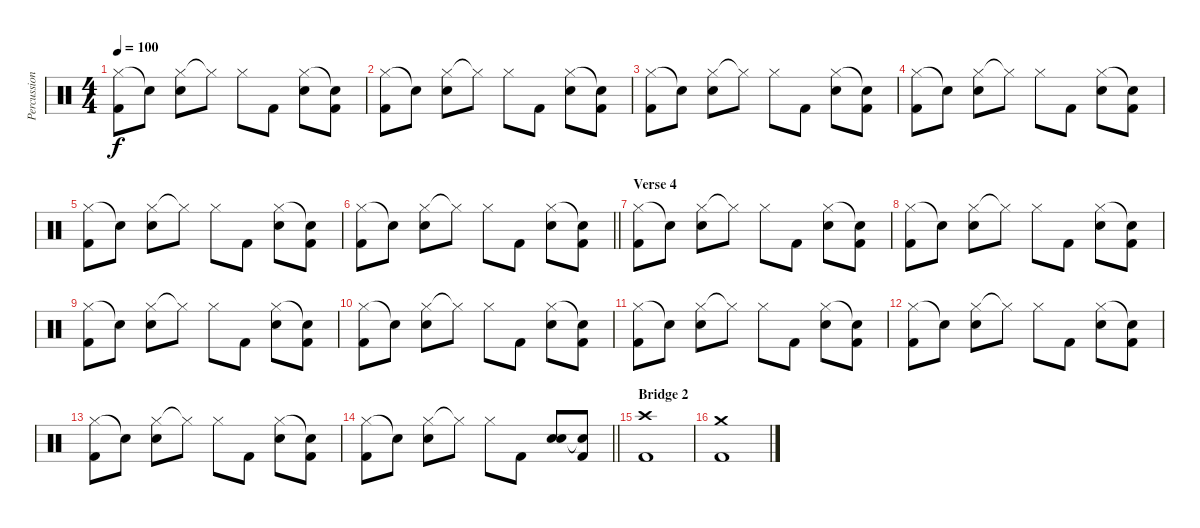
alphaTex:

\track ("Percussion(Tomi)" "Percussion") {instrument percussion}
\staff {score}
\articulation defaults
\ts (4 4)
\tempo 100
\clef neutral
\ks c
("Hi-Hat (closed)" "Kick (hit) 2").8{dy f} "Snare (hit)"{t}.8 ("Hi-Hat (closed)" "Electric Snare (hit)").8 "Hi-Hat (closed)"{t}.8 "Hi-Hat (closed)".8 "Kick (hit) 2".8 ("Hi-Hat (closed)" "Electric Snare (hit)").8 ("Snare (hit)"{t} "Kick (hit) 2").8 |
("Hi-Hat (closed)" "Kick (hit) 2").8 "Snare (hit)"{t}.8 ("Hi-Hat (closed)" "Electric Snare (hit)").8 "Hi-Hat (closed)"{t}.8 "Hi-Hat (closed)".8 "Kick (hit) 2".8 ("Hi-Hat (closed)" "Electric Snare (hit)").8 ("Snare (hit)"{t} "Kick (hit) 2").8 |
("Hi-Hat (closed)" "Kick (hit) 2").8 "Snare (hit)"{t}.8 ("Hi-Hat (closed)" "Electric Snare (hit)").8 "Hi-Hat (closed)"{t}.8 "Hi-Hat (closed)".8 "Kick (hit) 2".8 ("Hi-Hat (closed)" "Electric Snare (hit)").8 ("Snare (hit)"{t} "Kick (hit) 2").8 |
("Hi-Hat (closed)" "Kick (hit) 2").8 "Snare (hit)"{t}.8 ("Hi-Hat (closed)" "Electric Snare (hit)").8 "Hi-Hat (closed)"{t}.8 "Hi-Hat (closed)".8 "Kick (hit) 2".8 ("Hi-Hat (closed)" "Electric Snare (hit)").8 ("Snare (hit)"{t} "Kick (hit) 2").8 |
("Hi-Hat (closed)" "Kick (hit) 2").8 "Snare (hit)"{t}.8 ("Hi-Hat (closed)" "Electric Snare (hit)").8 "Hi-Hat (closed)"{t}.8 "Hi-Hat (closed)".8 "Kick (hit) 2".8 ("Hi-Hat (closed)" "Electric Snare (hit)").8 ("Snare (hit)"{t} "Kick (hit) 2").8 |
\barLineRight lightlight
("Hi-Hat (closed)" "Kick (hit) 2").8 "Snare (hit)"{t}.8 ("Hi-Hat (closed)" "Electric Snare (hit)").8 "Hi-Hat (closed)"{t}.8 "Hi-Hat (closed)".8 "Kick (hit) 2".8 ("Hi-Hat (closed)" "Electric Snare (hit)").8 ("Snare (hit)"{t} "Kick (hit) 2").8 |
\section ("" "Verse 4")
("Hi-Hat (closed)" "Kick (hit) 2").8 "Snare (hit)"{t}.8 ("Hi-Hat (closed)" "Electric Snare (hit)").8 "Hi-Hat (closed)"{t}.8 "Hi-Hat (closed)".8 "Kick (hit) 2".8 ("Hi-Hat (closed)" "Electric Snare (hit)").8 ("Snare (hit)"{t} "Kick (hit) 2").8 |
("Hi-Hat (closed)" "Kick (hit) 2").8 "Snare (hit)"{t}.8 ("Hi-Hat (closed)" "Electric Snare (hit)").8 "Hi-Hat (closed)"{t}.8 "Hi-Hat (closed)".8 "Kick (hit) 2".8 ("Hi-Hat (closed)" "Electric Snare (hit)").8 ("Snare (hit)"{t} "Kick (hit) 2").8 |
("Hi-Hat (closed)" "Kick (hit) 2").8 "Snare (hit)"{t}.8 ("Hi-Hat (closed)" "Electric Snare (hit)").8 "Hi-Hat (closed)"{t}.8 "Hi-Hat (closed)".8 "Kick (hit) 2".8 ("Hi-Hat (closed)" "Electric Snare (hit)").8 ("Snare (hit)"{t} "Kick (hit) 2").8 |
("Hi-Hat (closed)" "Kick (hit) 2").8 "Snare (hit)"{t}.8 ("Hi-Hat (closed)" "Electric Snare (hit)").8 "Hi-Hat (closed)"{t}.8 "Hi-Hat (closed)".8 "Kick (hit) 2".8 ("Hi-Hat (closed)" "Electric Snare (hit)").8 ("Snare (hit)"{t} "Kick (hit) 2").8 |
("Hi-Hat (closed)" "Kick (hit) 2").8 "Snare (hit)"{t}.8 ("Hi-Hat (closed)" "Electric Snare (hit)").8 "Hi-Hat (closed)"{t}.8 "Hi-Hat (closed)".8 "Kick (hit) 2".8 ("Hi-Hat (closed)" "Electric Snare (hit)").8 ("Snare (hit)"{t} "Kick (hit) 2").8 |
("Hi-Hat (closed)" "Kick (hit) 2").8 "Snare (hit)"{t}.8 ("Hi-Hat (closed)" "Electric Snare (hit)").8 "Hi-Hat (closed)"{t}.8 "Hi-Hat (closed)".8 "Kick (hit) 2".8 ("Hi-Hat (closed)" "Electric Snare (hit)").8 ("Snare (hit)"{t} "Kick (hit) 2").8 |
("Hi-Hat (closed)" "Kick (hit) 2").8 "Snare (hit)"{t}.8 ("Hi-Hat (closed)" "Electric Snare (hit)").8 "Hi-Hat (closed)"{t}.8 "Hi-Hat (closed)".8 "Kick (hit) 2".8 ("Hi-Hat (closed)" "Electric Snare (hit)").8 ("Snare (hit)"{t} "Kick (hit) 2").8 |
\barLineRight lightlight
("Hi-Hat (closed)" "Kick (hit) 2").8 "Snare (hit)"{t}.8 ("Hi-Hat (closed)" "Electric Snare (hit)").8 "Hi-Hat (closed)"{t}.8 "Hi-Hat (closed)".8 "Kick (hit) 2".8 ("Electric Snare (hit)" "Electric Snare (hit)").8{bd 60} ("Snare (hit)"{t} "Kick (hit) 2").8 |
\section ("" "Bridge 2")
("Crash high (hit)" "Kick (hit) 2").1 |
("Crash medium (hit)" "Kick (hit) 2").1
